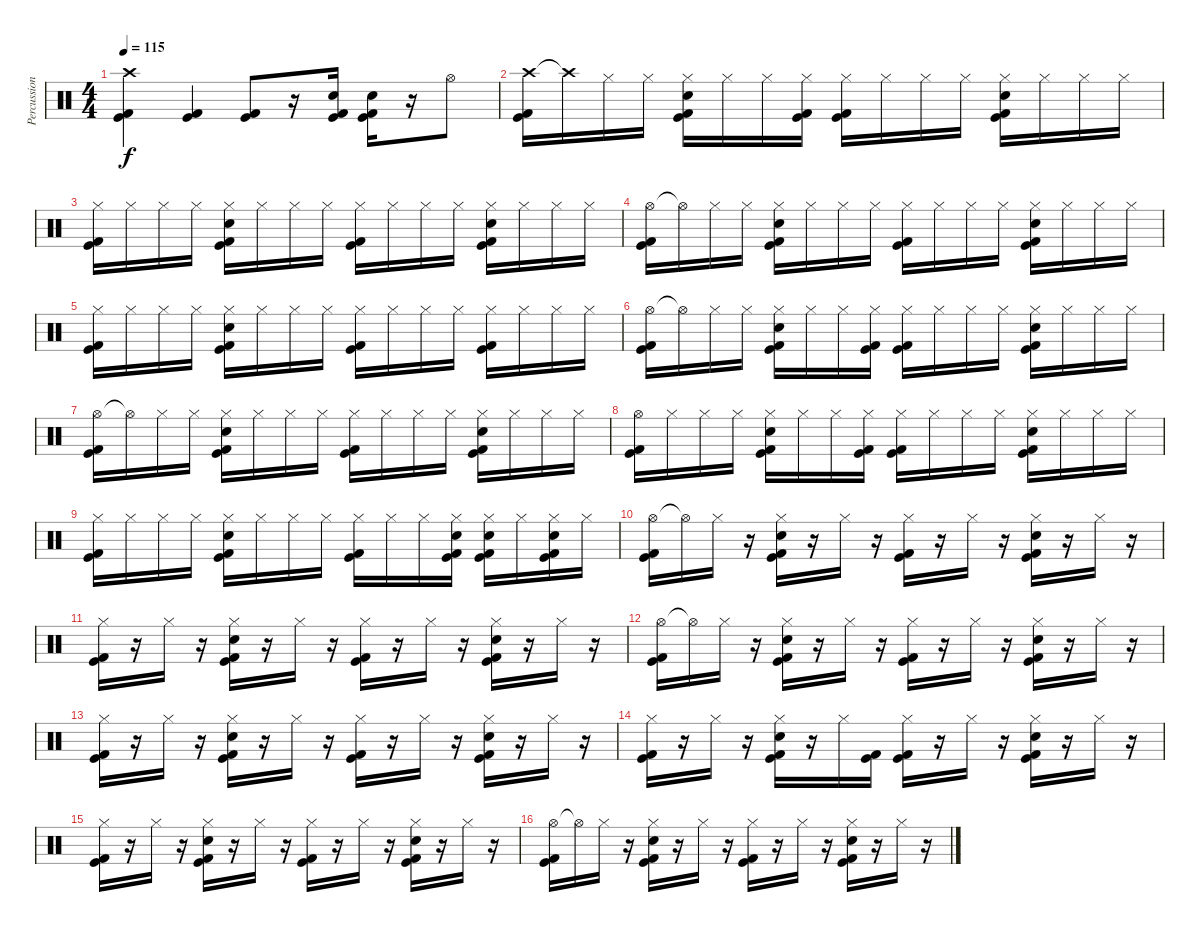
\track ("Percussions" "Percussion") {instrument percussion}
\staff {score}
\articulation defaults
\ts (4 4)
\tempo 115
\clef neutral
\ks c
("Crash high (hit)"{t} "Kick (hit)"{t} "Kick (hit) 2"{t}).4{dy f} ("Kick (hit) 2" "Kick (hit)").4 ("Kick (hit) 2" "Kick (hit)").8 r.16 ("Kick (hit) 2" "Snare (hit) 2" "Kick (hit)").16 ("Kick (hit) 2" "Snare (hit) 2" "Kick (hit)").16 r.16 "Hi-Hat (open)".8 |
("Crash high (hit)" "Kick (hit) 2" "Kick (hit)").16 "Crash high (hit)"{t}.16 "Hi-Hat (closed)".16 "Hi-Hat (closed)".16 ("Hi-Hat (closed)" "Kick (hit) 2" "Snare (hit) 2" "Kick (hit)").16 "Hi-Hat (closed)".16 "Hi-Hat (closed)".16 ("Hi-Hat (closed)" "Kick (hit) 2" "Kick (hit)").16 ("Hi-Hat (closed)" "Kick (hit) 2" "Kick (hit)").16 "Hi-Hat (closed)".16 "Hi-Hat (closed)".16 "Hi-Hat (closed)".16 ("Hi-Hat (closed)" "Kick (hit) 2" "Snare (hit) 2" "Kick (hit)").16 "Hi-Hat (closed)".16 "Hi-Hat (closed)".16 "Hi-Hat (closed)".16 |
("Hi-Hat (closed)" "Kick (hit) 2" "Kick (hit)").16 "Hi-Hat (closed)".16 "Hi-Hat (closed)".16 "Hi-Hat (closed)".16 ("Hi-Hat (closed)" "Kick (hit) 2" "Snare (hit) 2" "Kick (hit)").16 "Hi-Hat (closed)".16 "Hi-Hat (closed)".16 "Hi-Hat (closed)".16 ("Hi-Hat (closed)" "Kick (hit) 2" "Kick (hit)").16 "Hi-Hat (closed)".16 "Hi-Hat (closed)".16 "Hi-Hat (closed)".16 ("Hi-Hat (closed)" "Kick (hit) 2" "Snare (hit) 2" "Kick (hit)").16 "Hi-Hat (closed)".16 "Hi-Hat (closed)".16 "Hi-Hat (closed)".16 |
("Hi-Hat (open)" "Kick (hit) 2" "Kick (hit)").16 "Hi-Hat (open)"{t}.16 "Hi-Hat (closed)".16 "Hi-Hat (closed)".16 ("Hi-Hat (closed)" "Kick (hit) 2" "Snare (hit) 2" "Kick (hit)").16 "Hi-Hat (closed)".16 "Hi-Hat (closed)".16 "Hi-Hat (closed)".16 ("Hi-Hat (closed)" "Kick (hit) 2" "Kick (hit)").16 "Hi-Hat (closed)".16 "Hi-Hat (closed)".16 "Hi-Hat (closed)".16 ("Hi-Hat (closed)" "Kick (hit) 2" "Snare (hit) 2" "Kick (hit)").16 "Hi-Hat (closed)".16 "Hi-Hat (closed)".16 "Hi-Hat (closed)".16 |
("Hi-Hat (closed)" "Kick (hit) 2" "Kick (hit)").16 "Hi-Hat (closed)".16 "Hi-Hat (closed)".16 "Hi-Hat (closed)".16 ("Hi-Hat (closed)" "Kick (hit) 2" "Snare (hit) 2" "Kick (hit)").16 "Hi-Hat (closed)".16 "Hi-Hat (closed)".16 "Hi-Hat (closed)".16 ("Hi-Hat (closed)" "Kick (hit) 2" "Kick (hit)").16 "Hi-Hat (closed)".16 "Hi-Hat (closed)".16 "Hi-Hat (closed)".16 ("Hi-Hat (closed)" "Kick (hit) 2" "Kick (hit)").16 "Hi-Hat (closed)".16 "Hi-Hat (closed)".16 "Hi-Hat (closed)".16 |
("Hi-Hat (open)" "Kick (hit) 2" "Kick (hit)").16 "Hi-Hat (open)"{t}.16 "Hi-Hat (closed)".16 "Hi-Hat (closed)".16 ("Hi-Hat (closed)" "Kick (hit) 2" "Snare (hit) 2" "Kick (hit)").16 "Hi-Hat (closed)".16 "Hi-Hat (closed)".16 ("Hi-Hat (closed)" "Kick (hit) 2" "Kick (hit)").16 ("Hi-Hat (closed)" "Kick (hit) 2" "Kick (hit)").16 "Hi-Hat (closed)".16 "Hi-Hat (closed)".16 "Hi-Hat (closed)".16 ("Hi-Hat (closed)" "Kick (hit) 2" "Snare (hit) 2" "Kick (hit)").16 "Hi-Hat (closed)".16 "Hi-Hat (closed)".16 "Hi-Hat (closed)".16 |
("Hi-Hat (open)" "Kick (hit) 2" "Kick (hit)").16 "Hi-Hat (open)"{t}.16 "Hi-Hat (closed)".16 "Hi-Hat (closed)".16 ("Hi-Hat (closed)" "Kick (hit) 2" "Snare (hit) 2" "Kick (hit)").16 "Hi-Hat (closed)".16 "Hi-Hat (closed)".16 "Hi-Hat (closed)".16 ("Hi-Hat (closed)" "Kick (hit) 2" "Kick (hit)").16 "Hi-Hat (closed)".16 "Hi-Hat (closed)".16 "Hi-Hat (closed)".16 ("Hi-Hat (closed)" "Snare (hit) 2" "Kick (hit) 2" "Kick (hit)").16 "Hi-Hat (closed)".16 "Hi-Hat (closed)".16 "Hi-Hat (closed)".16 |
("Hi-Hat (open)" "Kick (hit) 2" "Kick (hit)").16 "Hi-Hat (closed)".16 "Hi-Hat (closed)".16 "Hi-Hat (closed)".16 ("Hi-Hat (closed)" "Kick (hit) 2" "Snare (hit) 2" "Kick (hit)").16 "Hi-Hat (closed)".16 "Hi-Hat (closed)".16 ("Hi-Hat (closed)" "Kick (hit) 2" "Kick (hit)").16 ("Hi-Hat (closed)" "Kick (hit) 2" "Kick (hit)").16 "Hi-Hat (closed)".16 "Hi-Hat (closed)".16 "Hi-Hat (closed)".16 ("Hi-Hat (closed)" "Kick (hit) 2" "Snare (hit) 2" "Kick (hit)").16 "Hi-Hat (closed)".16 "Hi-Hat (closed)".16 "Hi-Hat (closed)".16 |
("Hi-Hat (closed)" "Kick (hit) 2" "Kick (hit)").16 "Hi-Hat (closed)".16 "Hi-Hat (closed)".16 "Hi-Hat (closed)".16 ("Hi-Hat (closed)" "Kick (hit) 2" "Snare (hit) 2" "Kick (hit)").16 "Hi-Hat (closed)".16 "Hi-Hat (closed)".16 "Hi-Hat (closed)".16 ("Hi-Hat (closed)" "Kick (hit) 2" "Kick (hit)").16 "Hi-Hat (closed)".16 "Hi-Hat (closed)".16 ("Hi-Hat (closed)" "Snare (hit) 2" "Kick (hit)" "Kick (hit) 2").16 ("Hi-Hat (closed)" "Snare (hit) 2" "Kick (hit)" "Kick (hit) 2").16 "Hi-Hat (closed)".16 ("Hi-Hat (closed)" "Snare (hit) 2" "Kick (hit)" "Kick (hit) 2").16 "Hi-Hat (closed)".16 |
("Hi-Hat (open)" "Kick (hit) 2" "Kick (hit)").16 "Hi-Hat (open)"{t}.16 "Hi-Hat (closed)".16 r.16 ("Hi-Hat (closed)" "Kick (hit) 2" "Snare (hit) 2" "Kick (hit)").16 r.16 "Hi-Hat (closed)".16 r.16 ("Hi-Hat (closed)" "Kick (hit) 2" "Kick (hit)").16 r.16 "Hi-Hat (closed)".16 r.16 ("Hi-Hat (closed)" "Kick (hit) 2" "Snare (hit) 2" "Kick (hit)").16 r.16 "Hi-Hat (closed)".16 r.16 |
("Hi-Hat (closed)" "Kick (hit) 2" "Kick (hit)").16 r.16 "Hi-Hat (closed)".16 r.16 ("Hi-Hat (closed)" "Kick (hit) 2" "Snare (hit) 2" "Kick (hit)").16 r.16 "Hi-Hat (closed)".16 r.16 ("Hi-Hat (closed)" "Kick (hit) 2" "Kick (hit)").16 r.16 "Hi-Hat (closed)".16 r.16 ("Hi-Hat (closed)" "Kick (hit) 2" "Snare (hit) 2" "Kick (hit)").16 r.16 "Hi-Hat (closed)".16 r.16 |
("Hi-Hat (open)" "Kick (hit) 2" "Kick (hit)").16 "Hi-Hat (open)"{t}.16 "Hi-Hat (closed)".16 r.16 ("Hi-Hat (closed)" "Kick (hit) 2" "Snare (hit) 2" "Kick (hit)").16 r.16 "Hi-Hat (closed)".16 r.16 ("Hi-Hat (closed)" "Kick (hit) 2" "Kick (hit)").16 r.16 "Hi-Hat (closed)".16 r.16 ("Hi-Hat (closed)" "Kick (hit) 2" "Snare (hit) 2" "Kick (hit)").16 r.16 "Hi-Hat (closed)".16 r.16 |
("Hi-Hat (closed)" "Kick (hit) 2" "Kick (hit)").16 r.16 "Hi-Hat (closed)".16 r.16 ("Hi-Hat (closed)" "Kick (hit) 2" "Snare (hit) 2" "Kick (hit)").16 r.16 "Hi-Hat (closed)".16 r.16 ("Hi-Hat (closed)" "Kick (hit) 2" "Kick (hit)").16 r.16 "Hi-Hat (closed)".16 r.16 ("Hi-Hat (closed)" "Kick (hit) 2" "Snare (hit) 2" "Kick (hit)").16 r.16 "Hi-Hat (closed)".16 r.16 |
("Hi-Hat (closed)" "Kick (hit) 2" "Kick (hit)").16 r.16 "Hi-Hat (closed)".16 r.16 ("Hi-Hat (closed)" "Kick (hit) 2" "Snare (hit) 2" "Kick (hit)").16 r.16 "Hi-Hat (closed)".16 ("Kick (hit) 2" "Kick (hit)").16 ("Hi-Hat (closed)" "Kick (hit) 2" "Kick (hit)").16 r.16 "Hi-Hat (closed)".16 r.16 ("Hi-Hat (closed)" "Kick (hit) 2" "Snare (hit) 2" "Kick (hit)").16 r.16 "Hi-Hat (closed)".16 r.16 |
("Hi-Hat (closed)" "Kick (hit) 2" "Kick (hit)").16 r.16 "Hi-Hat (closed)".16 r.16 ("Hi-Hat (closed)" "Kick (hit) 2" "Snare (hit) 2" "Kick (hit)").16 r.16 "Hi-Hat (closed)".16 r.16 ("Hi-Hat (closed)" "Kick (hit) 2" "Kick (hit)").16 r.16 "Hi-Hat (closed)".16 r.16 ("Hi-Hat (closed)" "Kick (hit) 2" "Snare (hit) 2" "Kick (hit)").16 r.16 "Hi-Hat (closed)".16 r.16 |
("Hi-Hat (open)" "Kick (hit) 2" "Kick (hit)").16 "Hi-Hat (open)"{t}.16 "Hi-Hat (closed)".16 r.16 ("Hi-Hat (closed)" "Kick (hit) 2" "Snare (hit) 2" "Kick (hit)").16 r.16 "Hi-Hat (closed)".16 r.16 ("Hi-Hat (closed)" "Kick (hit) 2" "Kick (hit)").16 r.16 "Hi-Hat (closed)".16 r.16 ("Hi-Hat (closed)" "Kick (hit) 2" "Snare (hit) 2" "Kick (hit)").16 r.16 "Hi-Hat (closed)".16 r.16
